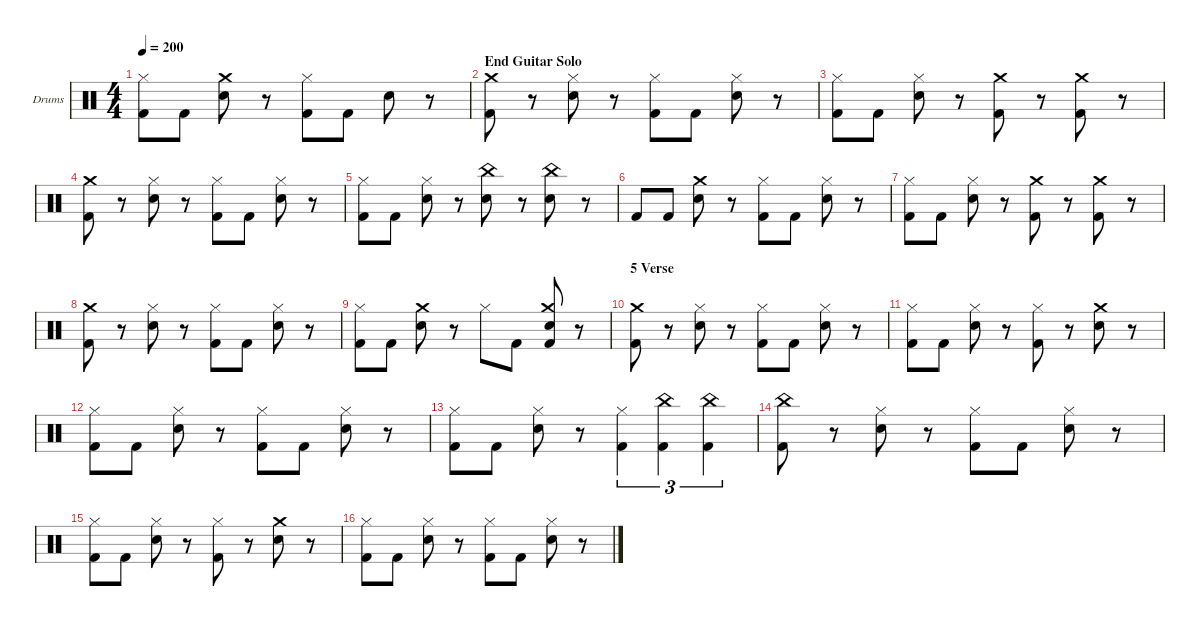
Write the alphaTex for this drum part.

\hideDynamics
\bracketExtendMode nobrackets
\firstSystemTrackNameOrientation horizontal
\otherSystemsTrackNameOrientation horizontal
\track ("Drumkit" "Drums") {instrument percussion}
\staff {score}
\articulation defaults
\ts (4 4)
\tempo 200
\clef neutral
\ks c
("Kick (hit) 2" "Hi-Hat (closed)").8{dy f} "Kick (hit) 2".8 ("Crash medium (hit)" "Snare (hit) 2").8 r.8 ("Kick (hit) 2" "Hi-Hat (closed)").8 "Kick (hit) 2".8 "Snare (hit) 2".8 r.8 |
\section ("" "End Guitar Solo")
("Kick (hit) 2" "Crash medium (hit)").8 r.8 ("Hi-Hat (closed)" "Snare (hit) 2").8 r.8 ("Hi-Hat (closed)" "Kick (hit) 2").8 "Kick (hit) 2".8 ("Hi-Hat (closed)" "Snare (hit) 2").8 r.8 |
("Kick (hit) 2" "Hi-Hat (closed)").8 "Kick (hit) 2".8 ("Snare (hit) 2" "Hi-Hat (closed)").8 r.8 ("Crash medium (hit)" "Kick (hit) 2").8 r.8 ("Crash medium (hit)" "Kick (hit) 2").8 r.8 |
("Kick (hit) 2" "Crash medium (hit)").8 r.8 ("Hi-Hat (closed)" "Snare (hit) 2").8 r.8 ("Hi-Hat (closed)" "Kick (hit) 2").8 "Kick (hit) 2".8 ("Hi-Hat (closed)" "Snare (hit) 2").8 r.8 |
("Kick (hit) 2" "Hi-Hat (closed)").8 "Kick (hit) 2".8 ("Snare (hit) 2" "Hi-Hat (closed)").8 r.8 ("China (hit)" "Snare (hit) 2").8 r.8 ("China (hit)" "Snare (hit) 2").8 r.8 |
"Kick (hit) 2".8 "Kick (hit) 2".8 ("Crash medium (hit)" "Snare (hit) 2").8 r.8 ("Hi-Hat (closed)" "Kick (hit) 2").8 "Kick (hit) 2".8 ("Hi-Hat (closed)" "Snare (hit) 2").8 r.8 |
("Kick (hit) 2" "Hi-Hat (closed)").8 "Kick (hit) 2".8 ("Snare (hit) 2" "Hi-Hat (closed)").8 r.8 ("Crash medium (hit)" "Kick (hit) 2").8 r.8 ("Crash medium (hit)" "Kick (hit) 2").8 r.8 |
("Kick (hit) 2" "Crash medium (hit)").8 r.8 ("Hi-Hat (closed)" "Snare (hit) 2").8 r.8 ("Hi-Hat (closed)" "Kick (hit) 2").8 "Kick (hit) 2".8 ("Hi-Hat (closed)" "Snare (hit) 2").8 r.8 |
("Kick (hit) 2" "Hi-Hat (closed)").8 "Kick (hit) 2".8 ("Crash medium (hit)" "Snare (hit) 2").8 r.8 "Hi-Hat (closed)".8 "Kick (hit) 2".8 ("Kick (hit) 2" "Snare (hit) 2" "Crash medium (hit)").8 r.8 |
\section ("" "5 Verse")
("Kick (hit) 2" "Crash medium (hit)").8 r.8 ("Hi-Hat (closed)" "Snare (hit) 2").8 r.8 ("Hi-Hat (closed)" "Kick (hit) 2").8 "Kick (hit) 2".8 ("Hi-Hat (closed)" "Snare (hit) 2").8 r.8 |
("Kick (hit) 2" "Hi-Hat (closed)").8 "Kick (hit) 2".8 ("Snare (hit) 2" "Hi-Hat (closed)").8 r.8 ("Hi-Hat (closed)" "Kick (hit) 2").8 r.8 ("Crash medium (hit)" "Snare (hit) 2").8 r.8 |
("Hi-Hat (closed)" "Kick (hit) 2").8 "Kick (hit) 2".8 ("Snare (hit) 2" "Hi-Hat (closed)").8 r.8 ("Hi-Hat (closed)" "Kick (hit) 2").8 "Kick (hit) 2".8 ("Snare (hit) 2" "Hi-Hat (closed)").8 r.8 |
("Kick (hit) 2" "Hi-Hat (closed)").8 "Kick (hit) 2".8 ("Snare (hit) 2" "Hi-Hat (closed)").8 r.8 ("Hi-Hat (closed)" "Kick (hit) 2").4{tu (3 2)} ("China (hit)" "Kick (hit) 2").4{tu (3 2)} ("China (hit)" "Kick (hit) 2").4{tu (3 2)} |
("China (hit)" "Kick (hit) 2").8 r.8 ("Hi-Hat (closed)" "Snare (hit) 2").8 r.8 ("Hi-Hat (closed)" "Kick (hit) 2").8 "Kick (hit) 2".8 ("Snare (hit) 2" "Hi-Hat (closed)").8 r.8 |
("Kick (hit) 2" "Hi-Hat (closed)").8 "Kick (hit) 2".8 ("Snare (hit) 2" "Hi-Hat (closed)").8 r.8 ("Hi-Hat (closed)" "Kick (hit) 2").8 r.8 ("Crash medium (hit)" "Snare (hit) 2").8 r.8 |
("Hi-Hat (closed)" "Kick (hit) 2").8 "Kick (hit) 2".8 ("Snare (hit) 2" "Hi-Hat (closed)").8 r.8 ("Hi-Hat (closed)" "Kick (hit) 2").8 "Kick (hit) 2".8 ("Snare (hit) 2" "Hi-Hat (closed)").8 r.8
